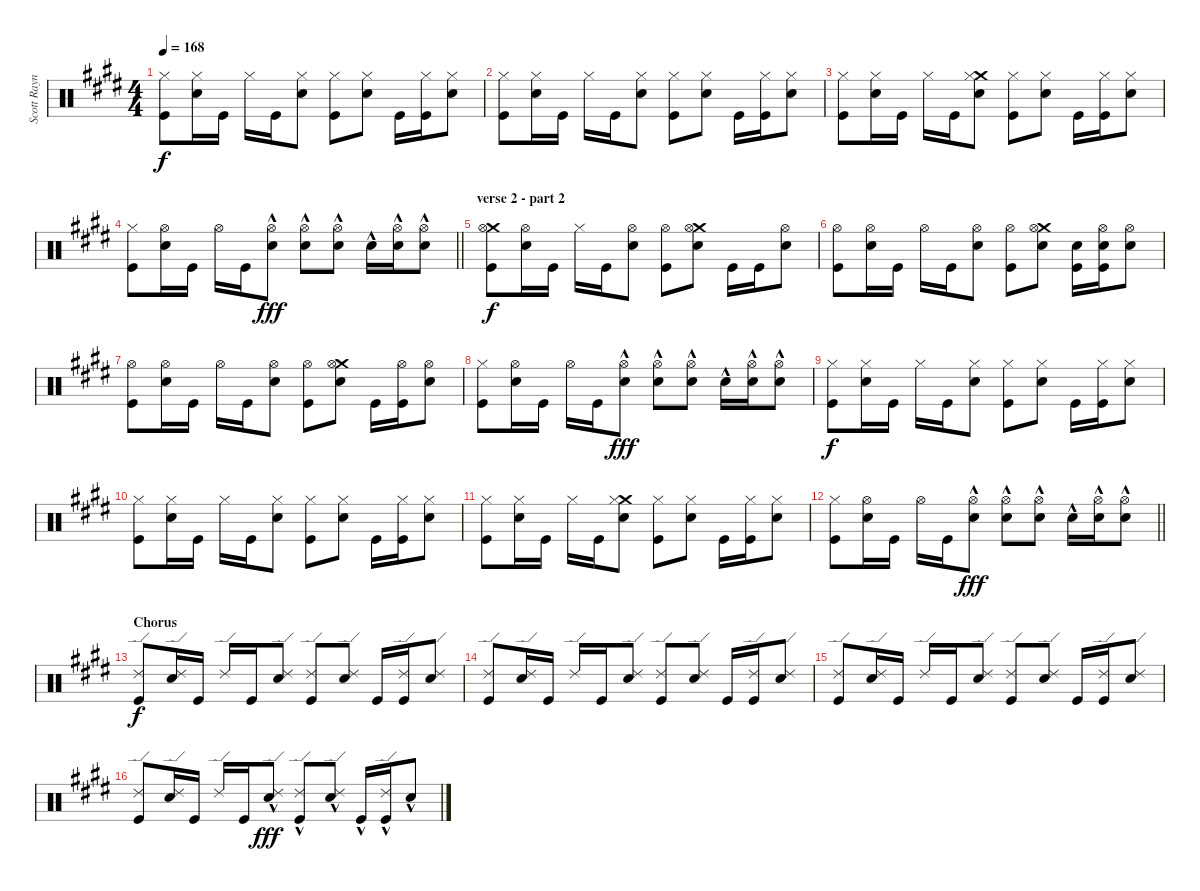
\track ("Scott Raynor" "Scott Rayn") {instrument percussion}
\staff {score}
\articulation defaults
\ts (4 4)
\tempo 168
\clef neutral
\ks e
("Hi-Hat (closed)" "Kick (hit)").8{dy f} ("Hi-Hat (closed)" "Electric Snare (hit)").16 "Kick (hit)".16 "Hi-Hat (closed)".16 "Kick (hit)".16 ("Hi-Hat (closed)" "Electric Snare (hit)").8 ("Hi-Hat (closed)" "Kick (hit)").8 ("Hi-Hat (closed)" "Electric Snare (hit)").8 "Kick (hit)".16 ("Hi-Hat (closed)" "Kick (hit)").16 ("Hi-Hat (closed)" "Electric Snare (hit)").8 |
("Hi-Hat (closed)" "Kick (hit)").8 ("Hi-Hat (closed)" "Electric Snare (hit)").16 "Kick (hit)".16 "Hi-Hat (closed)".16 "Kick (hit)".16 ("Hi-Hat (closed)" "Electric Snare (hit)").8 ("Hi-Hat (closed)" "Kick (hit)").8 ("Hi-Hat (closed)" "Electric Snare (hit)").8 "Kick (hit)".16 ("Hi-Hat (closed)" "Kick (hit)").16 ("Hi-Hat (closed)" "Electric Snare (hit)").8 |
("Hi-Hat (closed)" "Kick (hit)").8 ("Hi-Hat (closed)" "Electric Snare (hit)").16 "Kick (hit)".16 "Hi-Hat (closed)".16 "Kick (hit)".16 ("Crash medium (hit)" "Hi-Hat (closed)" "Electric Snare (hit)").8 ("Hi-Hat (closed)" "Kick (hit)").8 ("Hi-Hat (closed)" "Electric Snare (hit)").8 "Kick (hit)".16 ("Hi-Hat (closed)" "Kick (hit)").16 ("Hi-Hat (closed)" "Electric Snare (hit)").8 |
\barLineRight lightlight
("Hi-Hat (closed)" "Kick (hit)").8 ("Hi-Hat (open)" "Electric Snare (hit)").16 "Kick (hit)".16 "Hi-Hat (open)".16 "Kick (hit)".16 ("Hi-Hat (open)" "Electric Snare (hit)"{hac}).8{dy fff} ("Hi-Hat (open)" "Electric Snare (hit)"{hac}).8 ("Hi-Hat (open)" "Electric Snare (hit)"{hac}).8 "Electric Snare (hit)"{hac}.16 ("Hi-Hat (open)" "Electric Snare (hit)"{hac}).16 ("Hi-Hat (open)" "Electric Snare (hit)"{hac}).8 |
\section ("" "verse 2 - part 2")
("Crash medium (hit)" "Hi-Hat (open)" "Kick (hit)").8{dy f} ("Hi-Hat (open)" "Electric Snare (hit)").16 "Kick (hit)".16 "Hi-Hat (closed)".16 "Kick (hit)".16 ("Hi-Hat (open)" "Electric Snare (hit)").8 ("Hi-Hat (open)" "Kick (hit)").8 ("Crash medium (hit)" "Hi-Hat (open)" "Electric Snare (hit)").8 "Kick (hit)".16 "Kick (hit)".16 ("Hi-Hat (open)" "Electric Snare (hit)").8 |
("Hi-Hat (open)" "Kick (hit)").8 ("Hi-Hat (open)" "Electric Snare (hit)").16 "Kick (hit)".16 "Hi-Hat (open)".16 "Kick (hit)".16 ("Hi-Hat (open)" "Electric Snare (hit)").8 ("Hi-Hat (open)" "Kick (hit)").8 ("Crash medium (hit)" "Hi-Hat (open)" "Electric Snare (hit)").8 ("Electric Snare (hit)" "Kick (hit)").16 ("Electric Snare (hit)" "Hi-Hat (open)" "Kick (hit)").16 ("Hi-Hat (open)" "Electric Snare (hit)").8 |
("Hi-Hat (open)" "Kick (hit)").8 ("Hi-Hat (open)" "Electric Snare (hit)").16 "Kick (hit)".16 "Hi-Hat (open)".16 "Kick (hit)".16 ("Hi-Hat (open)" "Electric Snare (hit)").8 ("Hi-Hat (open)" "Kick (hit)").8 ("Crash medium (hit)" "Hi-Hat (open)" "Electric Snare (hit)").8 "Kick (hit)".16 ("Hi-Hat (open)" "Kick (hit)").16 ("Hi-Hat (open)" "Electric Snare (hit)").8 |
("Hi-Hat (closed)" "Kick (hit)").8 ("Hi-Hat (open)" "Electric Snare (hit)").16 "Kick (hit)".16 "Hi-Hat (open)".16 "Kick (hit)".16 ("Hi-Hat (open)" "Electric Snare (hit)"{hac}).8{dy fff} ("Hi-Hat (open)" "Electric Snare (hit)"{hac}).8 ("Hi-Hat (open)" "Electric Snare (hit)"{hac}).8 "Electric Snare (hit)"{hac}.16 ("Hi-Hat (open)" "Electric Snare (hit)"{hac}).16 ("Hi-Hat (open)" "Electric Snare (hit)"{hac}).8 |
("Hi-Hat (closed)" "Kick (hit)").8{dy f} ("Hi-Hat (closed)" "Electric Snare (hit)").16 "Kick (hit)".16 "Hi-Hat (closed)".16 "Kick (hit)".16 ("Hi-Hat (closed)" "Electric Snare (hit)").8 ("Hi-Hat (closed)" "Kick (hit)").8 ("Hi-Hat (closed)" "Electric Snare (hit)").8 "Kick (hit)".16 ("Hi-Hat (closed)" "Kick (hit)").16 ("Hi-Hat (closed)" "Electric Snare (hit)").8 |
("Hi-Hat (closed)" "Kick (hit)").8 ("Hi-Hat (closed)" "Electric Snare (hit)").16 "Kick (hit)".16 "Hi-Hat (closed)".16 "Kick (hit)".16 ("Hi-Hat (closed)" "Electric Snare (hit)").8 ("Hi-Hat (closed)" "Kick (hit)").8 ("Hi-Hat (closed)" "Electric Snare (hit)").8 "Kick (hit)".16 ("Hi-Hat (closed)" "Kick (hit)").16 ("Hi-Hat (closed)" "Electric Snare (hit)").8 |
("Hi-Hat (closed)" "Kick (hit)").8 ("Hi-Hat (closed)" "Electric Snare (hit)").16 "Kick (hit)".16 "Hi-Hat (closed)".16 "Kick (hit)".16 ("Crash medium (hit)" "Hi-Hat (closed)" "Electric Snare (hit)").8 ("Hi-Hat (closed)" "Kick (hit)").8 ("Hi-Hat (closed)" "Electric Snare (hit)").8 "Kick (hit)".16 ("Hi-Hat (closed)" "Kick (hit)").16 ("Hi-Hat (closed)" "Electric Snare (hit)").8 |
\barLineRight lightlight
("Hi-Hat (closed)" "Kick (hit)").8 ("Hi-Hat (open)" "Electric Snare (hit)").16 "Kick (hit)".16 "Hi-Hat (open)".16 "Kick (hit)".16 ("Hi-Hat (open)" "Electric Snare (hit)"{hac}).8{dy fff} ("Hi-Hat (open)" "Electric Snare (hit)"{hac}).8 ("Hi-Hat (open)" "Electric Snare (hit)"{hac}).8 "Electric Snare (hit)"{hac}.16 ("Hi-Hat (open)" "Electric Snare (hit)"{hac}).16 ("Hi-Hat (open)" "Electric Snare (hit)"{hac}).8 |
\section ("" "Chorus")
("Ride (edge) 2" "Kick (hit)").8{dy f} ("Ride (edge) 2" "Electric Snare (hit)").16 "Kick (hit)".16 "Ride (edge) 2".16 "Kick (hit)".16 ("Ride (edge) 2" "Electric Snare (hit)").8 ("Ride (edge) 2" "Kick (hit)").8 ("Ride (edge) 2" "Electric Snare (hit)").8 "Kick (hit)".16 ("Ride (edge) 2" "Kick (hit)").16 ("Ride (edge) 2" "Electric Snare (hit)").8 |
("Ride (edge) 2" "Kick (hit)").8 ("Ride (edge) 2" "Electric Snare (hit)").16 "Kick (hit)".16 "Ride (edge) 2".16 "Kick (hit)".16 ("Ride (edge) 2" "Electric Snare (hit)").8 ("Ride (edge) 2" "Kick (hit)").8 ("Ride (edge) 2" "Electric Snare (hit)").8 "Kick (hit)".16 ("Ride (edge) 2" "Kick (hit)").16 ("Ride (edge) 2" "Electric Snare (hit)").8 |
("Ride (edge) 2" "Kick (hit)").8 ("Ride (edge) 2" "Electric Snare (hit)").16 "Kick (hit)".16 "Ride (edge) 2".16 "Kick (hit)".16 ("Ride (edge) 2" "Electric Snare (hit)").8 ("Ride (edge) 2" "Kick (hit)").8 ("Ride (edge) 2" "Electric Snare (hit)").8 "Kick (hit)".16 ("Ride (edge) 2" "Kick (hit)").16 ("Ride (edge) 2" "Electric Snare (hit)").8 |
("Ride (edge) 2" "Kick (hit)").8 ("Ride (edge) 2" "Electric Snare (hit)").16 "Kick (hit)".16 "Ride (edge) 2".16 "Kick (hit)".16 ("Ride (edge) 2" "Electric Snare (hit)"{hac}).8{dy fff} ("Ride (edge) 2" "Kick (hit)"{hac}).8 ("Ride (edge) 2" "Electric Snare (hit)"{hac}).8 "Kick (hit)"{hac}.16 ("Ride (edge) 2" "Kick (hit)"{hac}).16 "Electric Snare (hit)"{hac}.8
